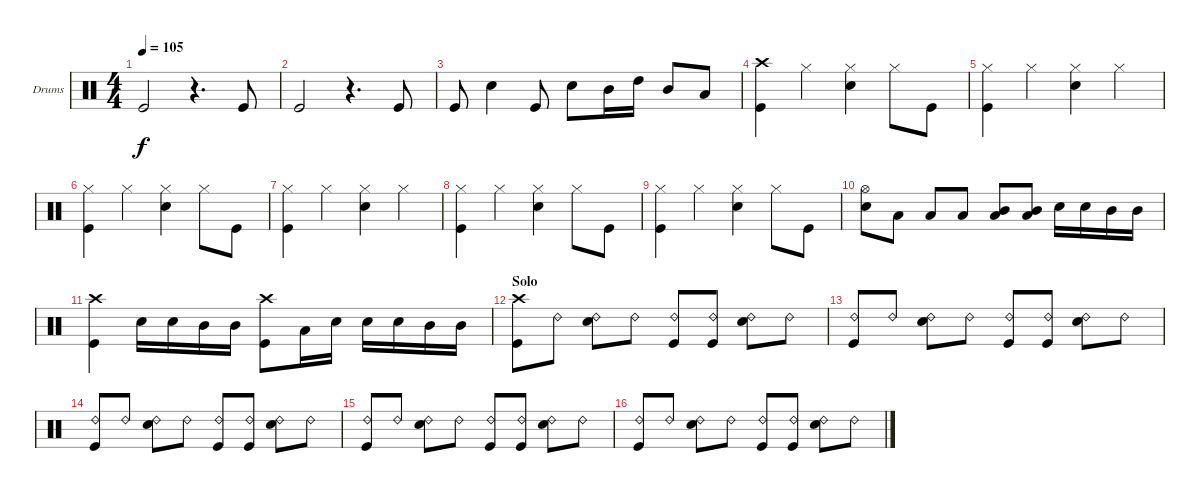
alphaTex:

\bracketExtendMode groupsimilarinstruments
\firstSystemTrackNameOrientation horizontal
\otherSystemsTrackNameOrientation horizontal
\track ("Drumkit" "Drums") {instrument percussion}
\staff {score}
\articulation defaults
\ts (4 4)
\tempo 105
\clef neutral
\ks c "Kick (hit)".2{dy f}
r.4{d} "Kick (hit)".8 |
"Kick (hit)".2 r.4{d} "Kick (hit)".8 |
"Kick (hit)".8 "Snare (hit) 2".4 "Kick (hit)".8 "Snare (hit) 2".8 "Mid Tom (hit)".16 "High Tom (hit)".16 "Mid Tom (hit)".8 "Low Tom (hit)".8 |
("Crash high (hit)" "Kick (hit)").4 "Hi-Hat (closed)".4 ("Hi-Hat (closed)" "Snare (hit) 2").4 "Hi-Hat (closed)".8 "Kick (hit)".8 |
("Hi-Hat (closed)" "Kick (hit)").4 "Hi-Hat (closed)".4 ("Hi-Hat (closed)" "Snare (hit) 2").4 "Hi-Hat (closed)".4 |
("Hi-Hat (closed)" "Kick (hit)").4 "Hi-Hat (closed)".4 ("Hi-Hat (closed)" "Snare (hit) 2").4 "Hi-Hat (closed)".8 "Kick (hit)".8 |
("Hi-Hat (closed)" "Kick (hit)").4 "Hi-Hat (closed)".4 ("Hi-Hat (closed)" "Snare (hit) 2").4 "Hi-Hat (closed)".4 |
("Hi-Hat (closed)" "Kick (hit)").4 "Hi-Hat (closed)".4 ("Hi-Hat (closed)" "Snare (hit) 2").4 "Hi-Hat (closed)".8 "Kick (hit)".8 |
("Hi-Hat (closed)" "Kick (hit)").4 "Hi-Hat (closed)".4 ("Hi-Hat (closed)" "Snare (hit) 2").4 "Hi-Hat (closed)".8 "Kick (hit)".8 |
("Hi-Hat (open)" "Snare (hit) 2").8 "Low Tom (hit)".8 "Low Tom (hit)".8 "Low Tom (hit)".8 ("Mid Tom (hit)" "Low Tom (hit)").8 ("Mid Tom (hit)" "Low Tom (hit)").8 "Snare (hit) 2".16 "Snare (hit) 2".16 "Mid Tom (hit)".16 "Mid Tom (hit)".16 |
("Crash high (hit)" "Kick (hit)").4 "Snare (hit) 2".16 "Snare (hit) 2".16 "Mid Tom (hit)".16 "Mid Tom (hit)".16 ("Crash high (hit)" "Kick (hit)").8 "Low Tom (hit)".16 "Snare (hit) 2".16 "Snare (hit) 2".16 "Snare (hit) 2".16 "Mid Tom (hit)".16 "Mid Tom (hit)".16 |
\section ("" "Solo")
("Crash high (hit)" "Kick (hit)").8 "Ride (bell) 2".8 ("Ride (bell) 2" "Snare (hit) 2").8 "Ride (bell) 2".8 ("Ride (bell) 2" "Kick (hit)").8 ("Ride (bell) 2" "Kick (hit)").8 ("Ride (bell) 2" "Snare (hit) 2").8 "Ride (bell) 2".8 |
("Ride (bell) 2" "Kick (hit)").8 "Ride (bell) 2".8 ("Ride (bell) 2" "Snare (hit) 2").8 "Ride (bell) 2".8 ("Ride (bell) 2" "Kick (hit)").8 ("Ride (bell) 2" "Kick (hit)").8 ("Ride (bell) 2" "Snare (hit) 2").8 "Ride (bell) 2".8 |
("Ride (bell) 2" "Kick (hit)").8 "Ride (bell) 2".8 ("Ride (bell) 2" "Snare (hit) 2").8 "Ride (bell) 2".8 ("Ride (bell) 2" "Kick (hit)").8 ("Ride (bell) 2" "Kick (hit)").8 ("Ride (bell) 2" "Snare (hit) 2").8 "Ride (bell) 2".8 |
("Ride (bell) 2" "Kick (hit)").8 "Ride (bell) 2".8 ("Ride (bell) 2" "Snare (hit) 2").8 "Ride (bell) 2".8 ("Ride (bell) 2" "Kick (hit)").8 ("Ride (bell) 2" "Kick (hit)").8 ("Ride (bell) 2" "Snare (hit) 2").8 "Ride (bell) 2".8 |
("Ride (bell) 2" "Kick (hit)").8 "Ride (bell) 2".8 ("Ride (bell) 2" "Snare (hit) 2").8 "Ride (bell) 2".8 ("Ride (bell) 2" "Kick (hit)").8 ("Ride (bell) 2" "Kick (hit)").8 ("Ride (bell) 2" "Snare (hit) 2").8 "Ride (bell) 2".8
